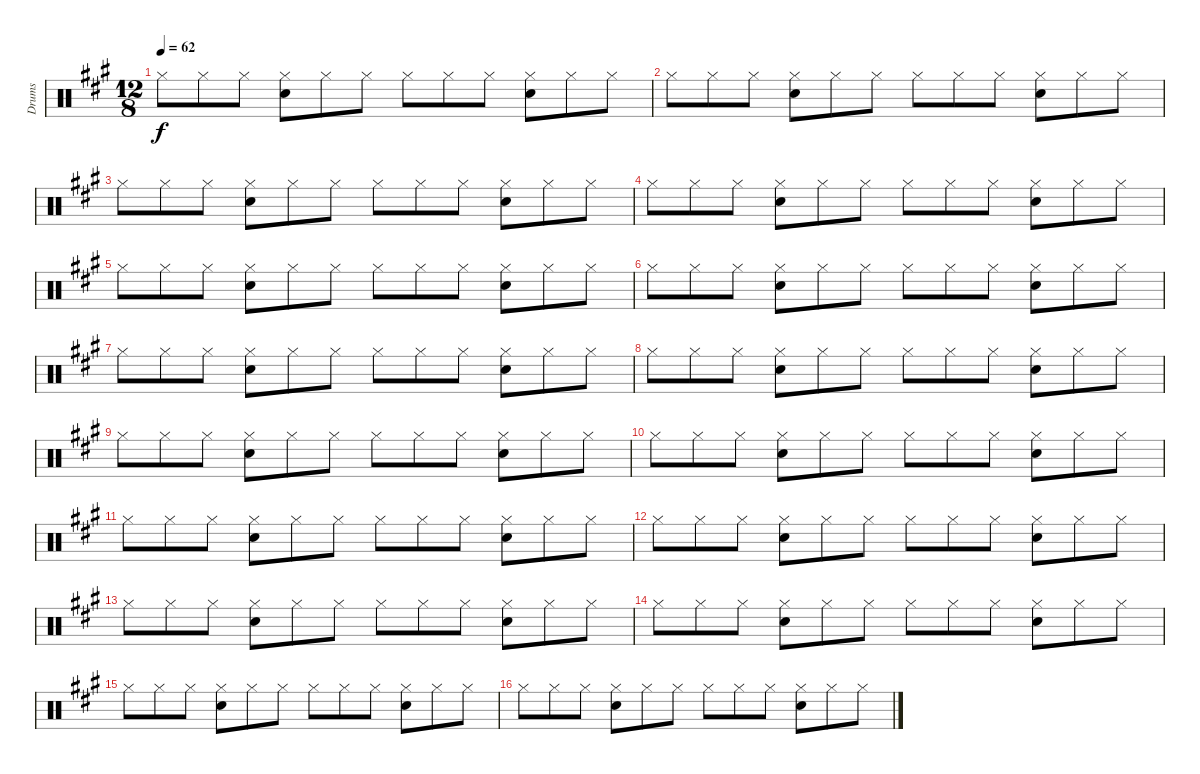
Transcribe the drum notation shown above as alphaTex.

\track ("Drums" "Drums") {instrument percussion}
\staff {score}
\articulation defaults
\ts (12 8)
\tempo 62
\clef neutral
\ks a "Hi-Hat (closed)".8{dy f} "Hi-Hat (closed)".8 "Hi-Hat (closed)".8
("Hi-Hat (closed)" "Snare (hit) 2").8 "Hi-Hat (closed)".8 "Hi-Hat (closed)".8 "Hi-Hat (closed)".8 "Hi-Hat (closed)".8 "Hi-Hat (closed)".8 ("Hi-Hat (closed)" "Snare (hit) 2").8 "Hi-Hat (closed)".8 "Hi-Hat (closed)".8 |
"Hi-Hat (closed)".8 "Hi-Hat (closed)".8 "Hi-Hat (closed)".8 ("Hi-Hat (closed)" "Snare (hit) 2").8 "Hi-Hat (closed)".8 "Hi-Hat (closed)".8 "Hi-Hat (closed)".8 "Hi-Hat (closed)".8 "Hi-Hat (closed)".8 ("Hi-Hat (closed)" "Snare (hit) 2").8 "Hi-Hat (closed)".8 "Hi-Hat (closed)".8 |
"Hi-Hat (closed)".8 "Hi-Hat (closed)".8 "Hi-Hat (closed)".8 ("Hi-Hat (closed)" "Snare (hit) 2").8 "Hi-Hat (closed)".8 "Hi-Hat (closed)".8 "Hi-Hat (closed)".8 "Hi-Hat (closed)".8 "Hi-Hat (closed)".8 ("Hi-Hat (closed)" "Snare (hit) 2").8 "Hi-Hat (closed)".8 "Hi-Hat (closed)".8 |
"Hi-Hat (closed)".8 "Hi-Hat (closed)".8 "Hi-Hat (closed)".8 ("Hi-Hat (closed)" "Snare (hit) 2").8 "Hi-Hat (closed)".8 "Hi-Hat (closed)".8 "Hi-Hat (closed)".8 "Hi-Hat (closed)".8 "Hi-Hat (closed)".8 ("Hi-Hat (closed)" "Snare (hit) 2").8 "Hi-Hat (closed)".8 "Hi-Hat (closed)".8 |
"Hi-Hat (closed)".8 "Hi-Hat (closed)".8 "Hi-Hat (closed)".8 ("Hi-Hat (closed)" "Snare (hit) 2").8 "Hi-Hat (closed)".8 "Hi-Hat (closed)".8 "Hi-Hat (closed)".8 "Hi-Hat (closed)".8 "Hi-Hat (closed)".8 ("Hi-Hat (closed)" "Snare (hit) 2").8 "Hi-Hat (closed)".8 "Hi-Hat (closed)".8 |
"Hi-Hat (closed)".8 "Hi-Hat (closed)".8 "Hi-Hat (closed)".8 ("Hi-Hat (closed)" "Snare (hit) 2").8 "Hi-Hat (closed)".8 "Hi-Hat (closed)".8 "Hi-Hat (closed)".8 "Hi-Hat (closed)".8 "Hi-Hat (closed)".8 ("Hi-Hat (closed)" "Snare (hit) 2").8 "Hi-Hat (closed)".8 "Hi-Hat (closed)".8 |
"Hi-Hat (closed)".8 "Hi-Hat (closed)".8 "Hi-Hat (closed)".8 ("Hi-Hat (closed)" "Snare (hit) 2").8 "Hi-Hat (closed)".8 "Hi-Hat (closed)".8 "Hi-Hat (closed)".8 "Hi-Hat (closed)".8 "Hi-Hat (closed)".8 ("Hi-Hat (closed)" "Snare (hit) 2").8 "Hi-Hat (closed)".8 "Hi-Hat (closed)".8 |
"Hi-Hat (closed)".8 "Hi-Hat (closed)".8 "Hi-Hat (closed)".8 ("Hi-Hat (closed)" "Snare (hit) 2").8 "Hi-Hat (closed)".8 "Hi-Hat (closed)".8 "Hi-Hat (closed)".8 "Hi-Hat (closed)".8 "Hi-Hat (closed)".8 ("Hi-Hat (closed)" "Snare (hit) 2").8 "Hi-Hat (closed)".8 "Hi-Hat (closed)".8 |
"Hi-Hat (closed)".8 "Hi-Hat (closed)".8 "Hi-Hat (closed)".8 ("Hi-Hat (closed)" "Snare (hit) 2").8 "Hi-Hat (closed)".8 "Hi-Hat (closed)".8 "Hi-Hat (closed)".8 "Hi-Hat (closed)".8 "Hi-Hat (closed)".8 ("Hi-Hat (closed)" "Snare (hit) 2").8 "Hi-Hat (closed)".8 "Hi-Hat (closed)".8 |
"Hi-Hat (closed)".8 "Hi-Hat (closed)".8 "Hi-Hat (closed)".8 ("Hi-Hat (closed)" "Snare (hit) 2").8 "Hi-Hat (closed)".8 "Hi-Hat (closed)".8 "Hi-Hat (closed)".8 "Hi-Hat (closed)".8 "Hi-Hat (closed)".8 ("Hi-Hat (closed)" "Snare (hit) 2").8 "Hi-Hat (closed)".8 "Hi-Hat (closed)".8 |
"Hi-Hat (closed)".8 "Hi-Hat (closed)".8 "Hi-Hat (closed)".8 ("Hi-Hat (closed)" "Snare (hit) 2").8 "Hi-Hat (closed)".8 "Hi-Hat (closed)".8 "Hi-Hat (closed)".8 "Hi-Hat (closed)".8 "Hi-Hat (closed)".8 ("Hi-Hat (closed)" "Snare (hit) 2").8 "Hi-Hat (closed)".8 "Hi-Hat (closed)".8 |
"Hi-Hat (closed)".8 "Hi-Hat (closed)".8 "Hi-Hat (closed)".8 ("Hi-Hat (closed)" "Snare (hit) 2").8 "Hi-Hat (closed)".8 "Hi-Hat (closed)".8 "Hi-Hat (closed)".8 "Hi-Hat (closed)".8 "Hi-Hat (closed)".8 ("Hi-Hat (closed)" "Snare (hit) 2").8 "Hi-Hat (closed)".8 "Hi-Hat (closed)".8 |
"Hi-Hat (closed)".8 "Hi-Hat (closed)".8 "Hi-Hat (closed)".8 ("Hi-Hat (closed)" "Snare (hit) 2").8 "Hi-Hat (closed)".8 "Hi-Hat (closed)".8 "Hi-Hat (closed)".8 "Hi-Hat (closed)".8 "Hi-Hat (closed)".8 ("Hi-Hat (closed)" "Snare (hit) 2").8 "Hi-Hat (closed)".8 "Hi-Hat (closed)".8 |
"Hi-Hat (closed)".8 "Hi-Hat (closed)".8 "Hi-Hat (closed)".8 ("Hi-Hat (closed)" "Snare (hit) 2").8 "Hi-Hat (closed)".8 "Hi-Hat (closed)".8 "Hi-Hat (closed)".8 "Hi-Hat (closed)".8 "Hi-Hat (closed)".8 ("Hi-Hat (closed)" "Snare (hit) 2").8 "Hi-Hat (closed)".8 "Hi-Hat (closed)".8 |
"Hi-Hat (closed)".8 "Hi-Hat (closed)".8 "Hi-Hat (closed)".8 ("Hi-Hat (closed)" "Snare (hit) 2").8 "Hi-Hat (closed)".8 "Hi-Hat (closed)".8 "Hi-Hat (closed)".8 "Hi-Hat (closed)".8 "Hi-Hat (closed)".8 ("Hi-Hat (closed)" "Snare (hit) 2").8 "Hi-Hat (closed)".8 "Hi-Hat (closed)".8 |
"Hi-Hat (closed)".8 "Hi-Hat (closed)".8 "Hi-Hat (closed)".8 ("Hi-Hat (closed)" "Snare (hit) 2").8 "Hi-Hat (closed)".8 "Hi-Hat (closed)".8 "Hi-Hat (closed)".8 "Hi-Hat (closed)".8 "Hi-Hat (closed)".8 ("Hi-Hat (closed)" "Snare (hit) 2").8 "Hi-Hat (closed)".8 "Hi-Hat (closed)".8
